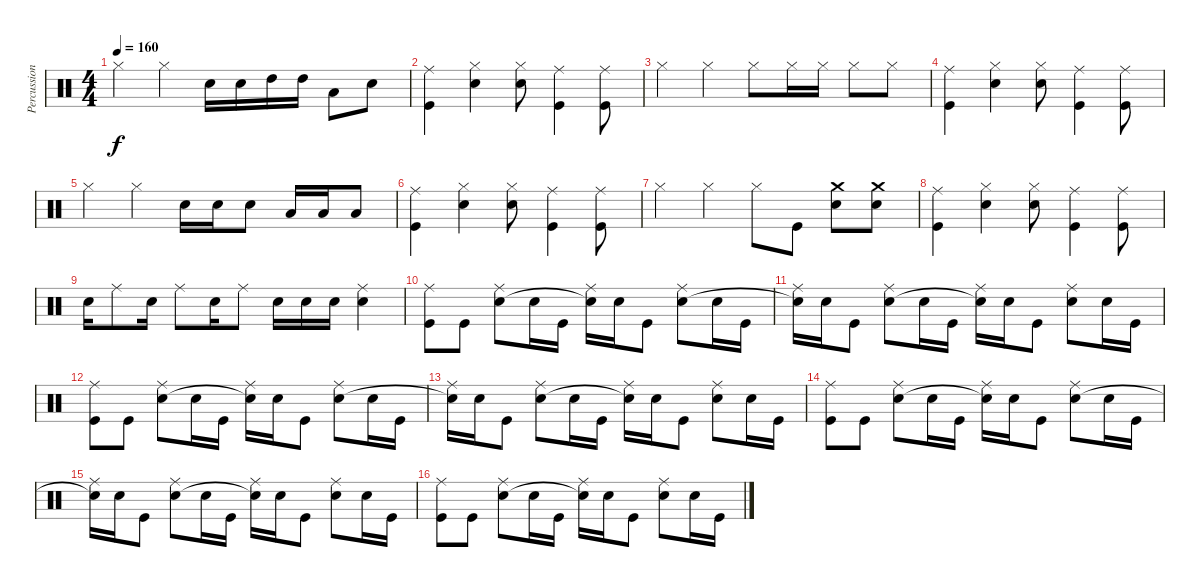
\track ("Percussion" "Percussion") {instrument percussion}
\staff {score}
\articulation defaults
\ts (4 4)
\tempo 160
\clef neutral
\ks c "Hi-Hat (closed)".4{dy f} "Hi-Hat (closed)".4 "Snare (hit) 2".16 "Snare (hit) 2".16 "High Tom (hit)".16 "High Tom (hit)".16 "Low Tom (hit)".8 "Snare (hit) 2".8
|
("Ride (middle)" "Kick (hit)").4 ("Hi-Hat (closed)" "Snare (hit) 2").4 ("Hi-Hat (closed)" "Snare (hit) 2").8 ("Ride (middle)" "Kick (hit)").4 ("Ride (middle)" "Kick (hit)").8 |
"Hi-Hat (closed)".4 "Hi-Hat (closed)".4 "Hi-Hat (closed)".8 "Hi-Hat (closed)".16 "Hi-Hat (closed)".16 "Hi-Hat (closed)".8 "Hi-Hat (closed)".8 |
("Ride (middle)" "Kick (hit)").4 ("Hi-Hat (closed)" "Snare (hit) 2").4 ("Hi-Hat (closed)" "Snare (hit) 2").8 ("Ride (middle)" "Kick (hit)").4 ("Ride (middle)" "Kick (hit)").8 |
"Hi-Hat (closed)".4 "Hi-Hat (closed)".4 "Snare (hit) 2".16 "Snare (hit) 2".16 "Snare (hit) 2".8 "Low Tom (hit)".16 "Low Tom (hit)".16 "Low Tom (hit)".8 |
("Ride (middle)" "Kick (hit)").4 ("Hi-Hat (closed)" "Snare (hit) 2").4 ("Hi-Hat (closed)" "Snare (hit) 2").8 ("Ride (middle)" "Kick (hit)").4 ("Ride (middle)" "Kick (hit)").8 |
"Hi-Hat (closed)".4 "Hi-Hat (closed)".4 "Hi-Hat (closed)".8 "Kick (hit)".8 ("Crash medium (hit)" "Snare (hit) 2").8 ("Crash medium (hit)" "Snare (hit) 2").8 |
("Ride (middle)" "Kick (hit)").4 ("Hi-Hat (closed)" "Snare (hit) 2").4 ("Hi-Hat (closed)" "Snare (hit) 2").8 ("Ride (middle)" "Kick (hit)").4 ("Ride (middle)" "Kick (hit)").8 |
"Snare (hit) 2".16 "Ride (middle)".8 "Snare (hit) 2".16 "Ride (middle)".8 "Snare (hit) 2".16 "Ride (middle)".8 "Snare (hit) 2".16 "Snare (hit) 2".16 "Snare (hit) 2".16 ("Ride (middle)" "Snare (hit) 2").4 |
("Ride (middle)" "Kick (hit)").8 "Kick (hit)".8 ("Ride (middle)" "Snare (hit) 2").8 "Snare (hit) 2".16 "Kick (hit)".16 ("Ride (middle)" "Snare (hit)"{t}).16 "Snare (hit) 2".16 "Kick (hit)".8 ("Ride (middle)" "Snare (hit) 2").8 "Snare (hit) 2".16 "Kick (hit)".16 |
("Ride (middle)" "Snare (hit)"{t}).16 "Snare (hit) 2".16 "Kick (hit)".8 ("Ride (middle)" "Snare (hit) 2").8 "Snare (hit) 2".16 "Kick (hit)".16 ("Ride (middle)" "Snare (hit)"{t}).16 "Snare (hit) 2".16 "Kick (hit)".8 ("Ride (middle)" "Snare (hit) 2").8 "Snare (hit) 2".16 "Kick (hit)".16 |
("Ride (middle)" "Kick (hit)").8 "Kick (hit)".8 ("Ride (middle)" "Snare (hit) 2").8 "Snare (hit) 2".16 "Kick (hit)".16 ("Ride (middle)" "Snare (hit)"{t}).16 "Snare (hit) 2".16 "Kick (hit)".8 ("Ride (middle)" "Snare (hit) 2").8 "Snare (hit) 2".16 "Kick (hit)".16 |
("Ride (middle)" "Snare (hit)"{t}).16 "Snare (hit) 2".16 "Kick (hit)".8 ("Ride (middle)" "Snare (hit) 2").8 "Snare (hit) 2".16 "Kick (hit)".16 ("Ride (middle)" "Snare (hit)"{t}).16 "Snare (hit) 2".16 "Kick (hit)".8 ("Ride (middle)" "Snare (hit) 2").8 "Snare (hit) 2".16 "Kick (hit)".16 |
("Ride (middle)" "Kick (hit)").8 "Kick (hit)".8 ("Ride (middle)" "Snare (hit) 2").8 "Snare (hit) 2".16 "Kick (hit)".16 ("Ride (middle)" "Snare (hit)"{t}).16 "Snare (hit) 2".16 "Kick (hit)".8 ("Ride (middle)" "Snare (hit) 2").8 "Snare (hit) 2".16 "Kick (hit)".16 |
("Ride (middle)" "Snare (hit)"{t}).16 "Snare (hit) 2".16 "Kick (hit)".8 ("Ride (middle)" "Snare (hit) 2").8 "Snare (hit) 2".16 "Kick (hit)".16 ("Ride (middle)" "Snare (hit)"{t}).16 "Snare (hit) 2".16 "Kick (hit)".8 ("Ride (middle)" "Snare (hit) 2").8 "Snare (hit) 2".16 "Kick (hit)".16 |
("Ride (middle)" "Kick (hit)").8 "Kick (hit)".8 ("Ride (middle)" "Snare (hit) 2").8 "Snare (hit) 2".16 "Kick (hit)".16 ("Ride (middle)" "Snare (hit)"{t}).16 "Snare (hit) 2".16 "Kick (hit)".8 ("Ride (middle)" "Snare (hit) 2").8 "Snare (hit) 2".16 "Kick (hit)".16
